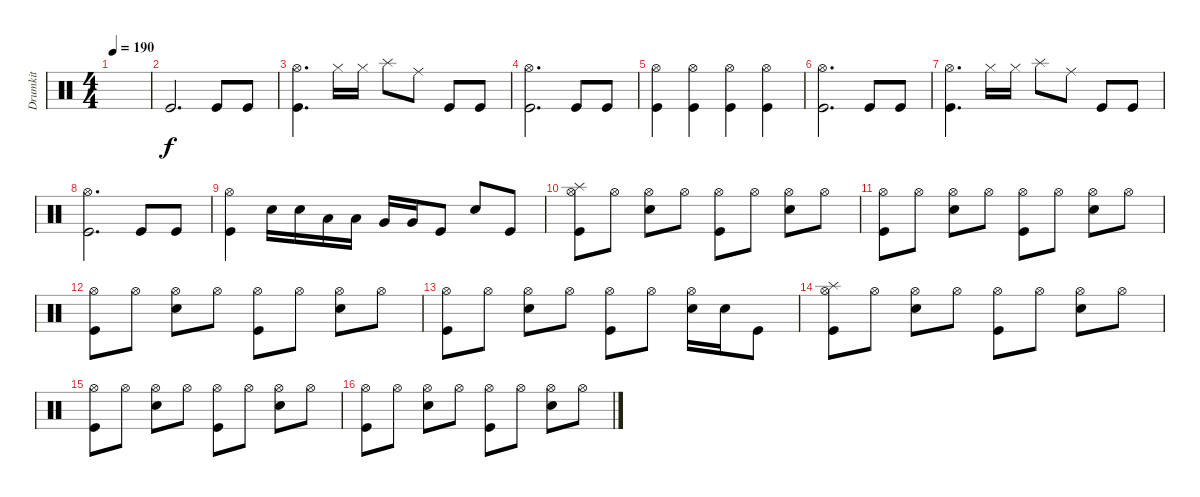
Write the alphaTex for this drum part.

\track ("Drumkit" "Drumkit") {instrument percussion}
\staff {score}
\articulation defaults
\ts (4 4)
\tempo 190
\clef neutral
\ks c
|
"Kick (hit)".2{d} "Kick (hit)".8 "Kick (hit)".8 |
("Kick (hit)" "Hi-Hat (open)").4{d} "Hi-Hat (closed)".16 "Hi-Hat (closed)".16 "Splash (hit)".8 "Ride (middle)".8 "Kick (hit)".8 "Kick (hit)".8 |
("Kick (hit)" "Hi-Hat (open)").2{d} "Kick (hit)".8 "Kick (hit)".8 |
("Kick (hit)" "Hi-Hat (open)").4 ("Kick (hit)" "Hi-Hat (open)").4 ("Kick (hit)" "Hi-Hat (open)").4 ("Kick (hit)" "Hi-Hat (open)").4 |
("Kick (hit)" "Hi-Hat (open)").2{d} "Kick (hit)".8 "Kick (hit)".8 |
("Kick (hit)" "Hi-Hat (open)").4{d} "Hi-Hat (closed)".16 "Hi-Hat (closed)".16 "Splash (hit)".8 "Ride (middle)".8 "Kick (hit)".8 "Kick (hit)".8 |
("Kick (hit)" "Hi-Hat (open)").2{d} "Kick (hit)".8 "Kick (hit)".8 |
("Kick (hit)" "Hi-Hat (open)").4 "Snare (hit) 2".16 "Snare (hit) 2".16 "Low Tom (hit)".16 "Low Tom (hit)".16 "Very Low Tom (hit)".16 "Very Low Tom (hit)".16 "Kick (hit)".8 "Snare (hit) 2".8 "Kick (hit)".8 |
("Kick (hit)" "Hi-Hat (open)" "Splash (hit)").8 "Hi-Hat (open)".8 ("Snare (hit) 2" "Hi-Hat (open)").8 "Hi-Hat (open)".8 ("Hi-Hat (open)" "Kick (hit)").8 "Hi-Hat (open)".8 ("Hi-Hat (open)" "Snare (hit) 2").8 "Hi-Hat (open)".8 |
("Kick (hit)" "Hi-Hat (open)").8 "Hi-Hat (open)".8 ("Snare (hit) 2" "Hi-Hat (open)").8 "Hi-Hat (open)".8 ("Hi-Hat (open)" "Kick (hit)").8 "Hi-Hat (open)".8 ("Hi-Hat (open)" "Snare (hit) 2").8 "Hi-Hat (open)".8 |
("Kick (hit)" "Hi-Hat (open)").8 "Hi-Hat (open)".8 ("Snare (hit) 2" "Hi-Hat (open)").8 "Hi-Hat (open)".8 ("Hi-Hat (open)" "Kick (hit)").8 "Hi-Hat (open)".8 ("Hi-Hat (open)" "Snare (hit) 2").8 "Hi-Hat (open)".8 |
("Kick (hit)" "Hi-Hat (open)").8 "Hi-Hat (open)".8 ("Snare (hit) 2" "Hi-Hat (open)").8 "Hi-Hat (open)".8 ("Hi-Hat (open)" "Kick (hit)").8 "Hi-Hat (open)".8 ("Hi-Hat (open)" "Snare (hit) 2").16 "Snare (hit) 2".16 "Kick (hit)".8 |
("Kick (hit)" "Hi-Hat (open)" "Splash (hit)").8 "Hi-Hat (open)".8 ("Snare (hit) 2" "Hi-Hat (open)").8 "Hi-Hat (open)".8 ("Hi-Hat (open)" "Kick (hit)").8 "Hi-Hat (open)".8 ("Hi-Hat (open)" "Snare (hit) 2").8 "Hi-Hat (open)".8 |
("Kick (hit)" "Hi-Hat (open)").8 "Hi-Hat (open)".8 ("Snare (hit) 2" "Hi-Hat (open)").8 "Hi-Hat (open)".8 ("Hi-Hat (open)" "Kick (hit)").8 "Hi-Hat (open)".8 ("Hi-Hat (open)" "Snare (hit) 2").8 "Hi-Hat (open)".8 |
("Kick (hit)" "Hi-Hat (open)").8 "Hi-Hat (open)".8 ("Snare (hit) 2" "Hi-Hat (open)").8 "Hi-Hat (open)".8 ("Hi-Hat (open)" "Kick (hit)").8 "Hi-Hat (open)".8 ("Hi-Hat (open)" "Snare (hit) 2").8 "Hi-Hat (open)".8
